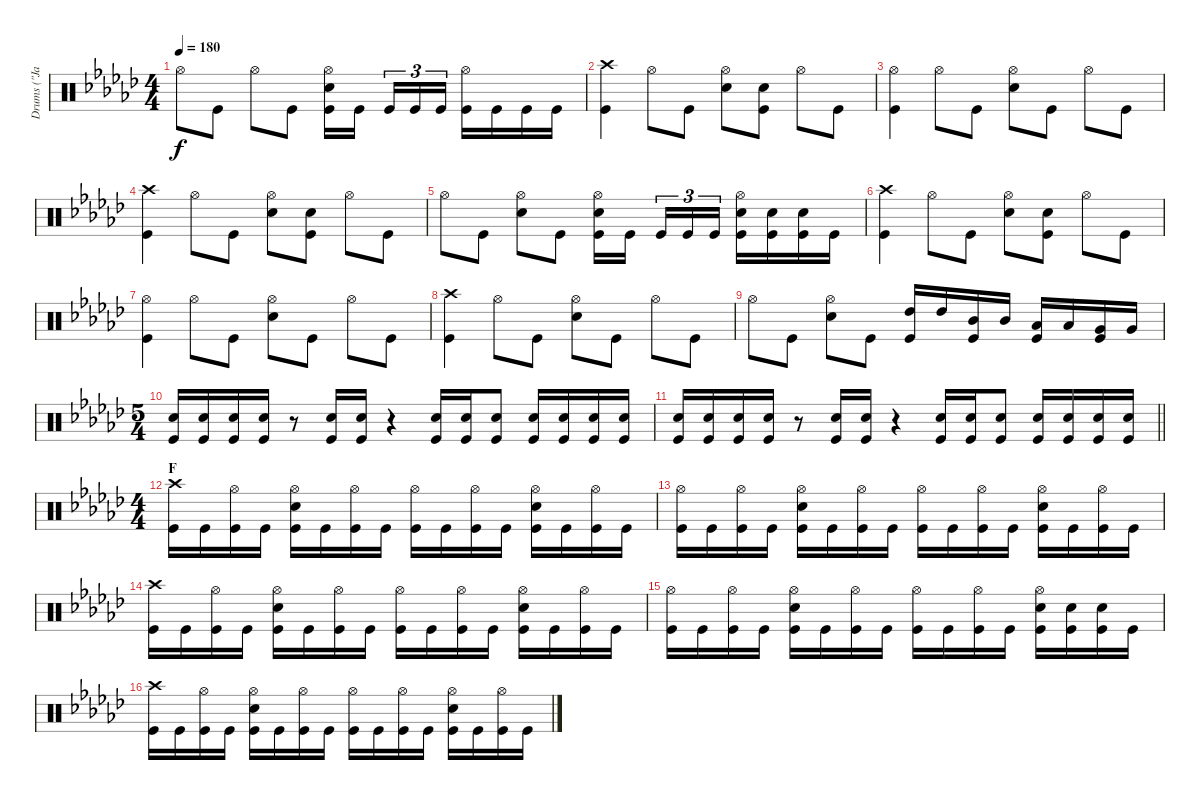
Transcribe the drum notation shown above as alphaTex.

\track ("Drums (\"Jane\")" "Drums (\"Ja") {instrument percussion}
\staff {score}
\articulation defaults
\ts (4 4)
\tempo 180
\clef neutral
\ks gb "Hi-Hat (open)".8{dy f} "Kick (hit)".8 "Hi-Hat (open)".8 "Kick (hit)".8
("Hi-Hat (open)" "Snare (hit) 2" "Kick (hit)").16 "Kick (hit)".16{beam splitsecondary} "Kick (hit)".16{tu (3 2)} "Kick (hit)".16{tu (3 2)} "Kick (hit)".16{tu (3 2)} ("Hi-Hat (open)" "Kick (hit)").16 "Kick (hit)".16 "Kick (hit)".16 "Kick (hit)".16 |
("Crash high (hit)" "Kick (hit)").4 "Hi-Hat (open)".8 "Kick (hit)".8 ("Hi-Hat (open)" "Snare (hit) 2").8 ("Snare (hit) 2" "Kick (hit)").8 "Hi-Hat (open)".8 "Kick (hit)".8 |
("Hi-Hat (open)" "Kick (hit)").4 "Hi-Hat (open)".8 "Kick (hit)".8 ("Hi-Hat (open)" "Snare (hit) 2").8 "Kick (hit)".8 "Hi-Hat (open)".8 "Kick (hit)".8 |
("Crash high (hit)" "Kick (hit)").4 "Hi-Hat (open)".8 "Kick (hit)".8 ("Hi-Hat (open)" "Snare (hit) 2").8 ("Snare (hit) 2" "Kick (hit)").8 "Hi-Hat (open)".8 "Kick (hit)".8 |
"Hi-Hat (open)".8 "Kick (hit)".8 ("Hi-Hat (open)" "Snare (hit) 2").8 "Kick (hit)".8 ("Hi-Hat (open)" "Snare (hit) 2" "Kick (hit)").16 "Kick (hit)".16{beam splitsecondary} "Kick (hit)".16{tu (3 2)} "Kick (hit)".16{tu (3 2)} "Kick (hit)".16{tu (3 2)} ("Hi-Hat (open)" "Snare (hit) 2" "Kick (hit)").16 ("Snare (hit) 2" "Kick (hit)").16 ("Snare (hit) 2" "Kick (hit)").16 "Kick (hit)".16 |
("Crash high (hit)" "Kick (hit)").4 "Hi-Hat (open)".8 "Kick (hit)".8 ("Hi-Hat (open)" "Snare (hit) 2").8 ("Snare (hit) 2" "Kick (hit)").8 "Hi-Hat (open)".8 "Kick (hit)".8 |
("Hi-Hat (open)" "Kick (hit)").4 "Hi-Hat (open)".8 "Kick (hit)".8 ("Hi-Hat (open)" "Snare (hit) 2").8 "Kick (hit)".8 "Hi-Hat (open)".8 "Kick (hit)".8 |
("Crash high (hit)" "Kick (hit)").4 "Hi-Hat (open)".8 "Kick (hit)".8 ("Hi-Hat (open)" "Snare (hit) 2").8 "Kick (hit)".8 "Hi-Hat (open)".8 "Kick (hit)".8 |
"Hi-Hat (open)".8 "Kick (hit)".8 ("Hi-Hat (open)" "Snare (hit) 2").8 "Kick (hit)".8 ("High Tom (hit)" "Kick (hit)").16 "High Tom (hit)".16 ("Mid Tom (hit)" "Kick (hit)").16 "Mid Tom (hit)".16 ("Low Tom (hit)" "Kick (hit)").16 "Low Tom (hit)".16 ("Very Low Tom (hit)" "Kick (hit)").16 "Very Low Tom (hit)".16 |
\ts (5 4)
("Snare (hit) 2" "Kick (hit)").16 ("Snare (hit) 2" "Kick (hit)").16 ("Snare (hit) 2" "Kick (hit)").16 ("Snare (hit) 2" "Kick (hit)").16 r.8 ("Snare (hit) 2" "Kick (hit)").16 ("Snare (hit) 2" "Kick (hit)").16 r.4 ("Snare (hit) 2" "Kick (hit)").16 ("Snare (hit) 2" "Kick (hit)").16 ("Snare (hit) 2" "Kick (hit)").8 ("Snare (hit) 2" "Kick (hit)").16 ("Snare (hit) 2" "Kick (hit)").16 ("Snare (hit) 2" "Kick (hit)").16 ("Snare (hit) 2" "Kick (hit)").16 |
\barLineRight lightlight
("Snare (hit) 2" "Kick (hit)").16 ("Snare (hit) 2" "Kick (hit)").16 ("Snare (hit) 2" "Kick (hit)").16 ("Snare (hit) 2" "Kick (hit)").16 r.8 ("Snare (hit) 2" "Kick (hit)").16 ("Snare (hit) 2" "Kick (hit)").16 r.4 ("Snare (hit) 2" "Kick (hit)").16 ("Snare (hit) 2" "Kick (hit)").16 ("Snare (hit) 2" "Kick (hit)").8 ("Snare (hit) 2" "Kick (hit)").16 ("Snare (hit) 2" "Kick (hit)").16 ("Snare (hit) 2" "Kick (hit)").16 ("Snare (hit) 2" "Kick (hit)").16 |
\ts (4 4)
\section ("" "F")
("Crash high (hit)" "Kick (hit)").16 "Kick (hit)".16 ("Hi-Hat (open)" "Kick (hit)").16 "Kick (hit)".16 ("Hi-Hat (open)" "Snare (hit) 2" "Kick (hit)").16 "Kick (hit)".16 ("Hi-Hat (open)" "Kick (hit)").16 "Kick (hit)".16 ("Hi-Hat (open)" "Kick (hit)").16 "Kick (hit)".16 ("Hi-Hat (open)" "Kick (hit)").16 "Kick (hit)".16 ("Hi-Hat (open)" "Snare (hit) 2" "Kick (hit)").16 "Kick (hit)".16 ("Hi-Hat (open)" "Kick (hit)").16 "Kick (hit)".16 |
("Hi-Hat (open)" "Kick (hit)").16 "Kick (hit)".16 ("Hi-Hat (open)" "Kick (hit)").16 "Kick (hit)".16 ("Hi-Hat (open)" "Snare (hit) 2" "Kick (hit)").16 "Kick (hit)".16 ("Hi-Hat (open)" "Kick (hit)").16 "Kick (hit)".16 ("Hi-Hat (open)" "Kick (hit)").16 "Kick (hit)".16 ("Hi-Hat (open)" "Kick (hit)").16 "Kick (hit)".16 ("Hi-Hat (open)" "Snare (hit) 2" "Kick (hit)").16 "Kick (hit)".16 ("Hi-Hat (open)" "Kick (hit)").16 "Kick (hit)".16 |
("Crash high (hit)" "Kick (hit)").16 "Kick (hit)".16 ("Hi-Hat (open)" "Kick (hit)").16 "Kick (hit)".16 ("Hi-Hat (open)" "Snare (hit) 2" "Kick (hit)").16 "Kick (hit)".16 ("Hi-Hat (open)" "Kick (hit)").16 "Kick (hit)".16 ("Hi-Hat (open)" "Kick (hit)").16 "Kick (hit)".16 ("Hi-Hat (open)" "Kick (hit)").16 "Kick (hit)".16 ("Hi-Hat (open)" "Snare (hit) 2" "Kick (hit)").16 "Kick (hit)".16 ("Hi-Hat (open)" "Kick (hit)").16 "Kick (hit)".16 |
("Hi-Hat (open)" "Kick (hit)").16 "Kick (hit)".16 ("Hi-Hat (open)" "Kick (hit)").16 "Kick (hit)".16 ("Hi-Hat (open)" "Snare (hit) 2" "Kick (hit)").16 "Kick (hit)".16 ("Hi-Hat (open)" "Kick (hit)").16 "Kick (hit)".16 ("Hi-Hat (open)" "Kick (hit)").16 "Kick (hit)".16 ("Hi-Hat (open)" "Kick (hit)").16 "Kick (hit)".16 ("Hi-Hat (open)" "Snare (hit) 2" "Kick (hit)").16 ("Snare (hit) 2" "Kick (hit)").16 ("Snare (hit) 2" "Kick (hit)").16 "Kick (hit)".16 |
("Crash high (hit)" "Kick (hit)").16 "Kick (hit)".16 ("Hi-Hat (open)" "Kick (hit)").16 "Kick (hit)".16 ("Hi-Hat (open)" "Snare (hit) 2" "Kick (hit)").16 "Kick (hit)".16 ("Hi-Hat (open)" "Kick (hit)").16 "Kick (hit)".16 ("Hi-Hat (open)" "Kick (hit)").16 "Kick (hit)".16 ("Hi-Hat (open)" "Kick (hit)").16 "Kick (hit)".16 ("Hi-Hat (open)" "Snare (hit) 2" "Kick (hit)").16 "Kick (hit)".16 ("Hi-Hat (open)" "Kick (hit)").16 "Kick (hit)".16
